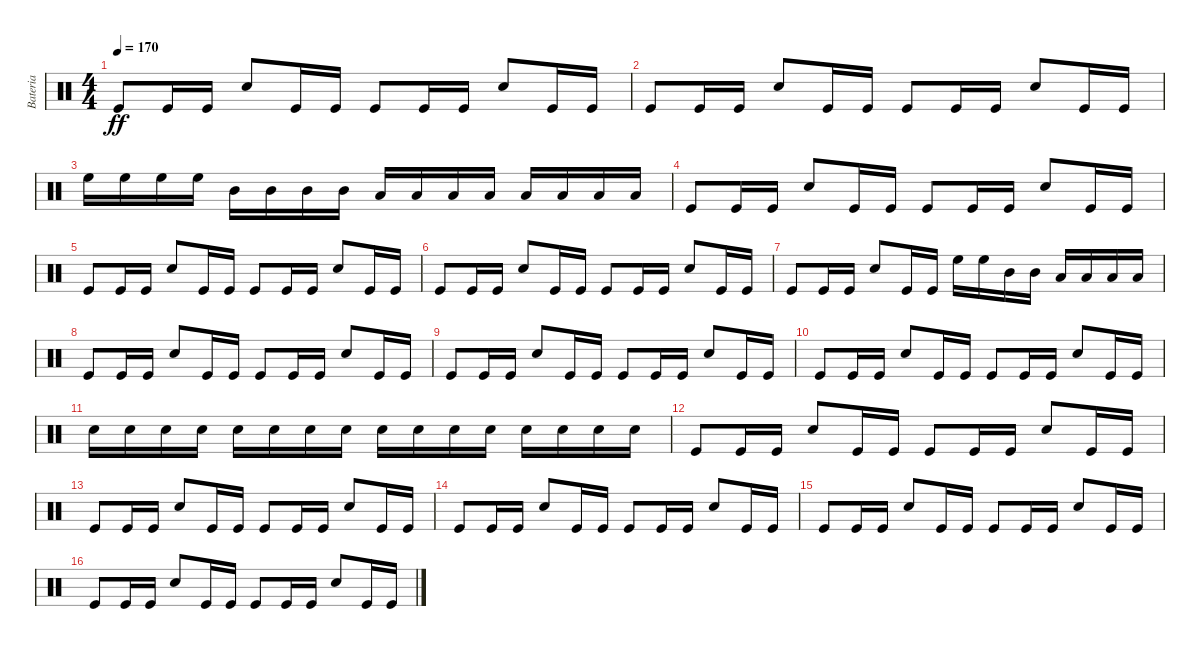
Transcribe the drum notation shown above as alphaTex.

\track ("Bateria" "Bateria") {instrument percussion}
\staff {score}
\articulation defaults
\ts (4 4)
\tempo 170
\clef neutral
\ks c "Kick (hit)".8{dy ff} "Kick (hit)".16 "Kick (hit)".16 "Electric Snare (hit)".8 "Kick (hit)".16 "Kick (hit)".16 "Kick (hit)".8 "Kick (hit)".16 "Kick (hit)".16 "Electric Snare (hit)".8 "Kick (hit)".16 "Kick (hit)".16
|
"Kick (hit)".8 "Kick (hit)".16 "Kick (hit)".16 "Electric Snare (hit)".8 "Kick (hit)".16 "Kick (hit)".16 "Kick (hit)".8 "Kick (hit)".16 "Kick (hit)".16 "Electric Snare (hit)".8 "Kick (hit)".16 "Kick (hit)".16 |
"High Floor Tom (hit)".16 "High Floor Tom (hit)".16 "High Floor Tom (hit)".16 "High Floor Tom (hit)".16 "Mid Tom (hit)".16 "Mid Tom (hit)".16 "Mid Tom (hit)".16 "Mid Tom (hit)".16 "Low Tom (hit)".16 "Low Tom (hit)".16 "Low Tom (hit)".16 "Low Tom (hit)".16 "Low Floor Tom (hit)".16 "Low Floor Tom (hit)".16 "Low Floor Tom (hit)".16 "Low Floor Tom (hit)".16 |
"Kick (hit)".8 "Kick (hit)".16 "Kick (hit)".16 "Electric Snare (hit)".8 "Kick (hit)".16 "Kick (hit)".16 "Kick (hit)".8 "Kick (hit)".16 "Kick (hit)".16 "Electric Snare (hit)".8 "Kick (hit)".16 "Kick (hit)".16 |
"Kick (hit)".8 "Kick (hit)".16 "Kick (hit)".16 "Electric Snare (hit)".8 "Kick (hit)".16 "Kick (hit)".16 "Kick (hit)".8 "Kick (hit)".16 "Kick (hit)".16 "Electric Snare (hit)".8 "Kick (hit)".16 "Kick (hit)".16 |
"Kick (hit)".8 "Kick (hit)".16 "Kick (hit)".16 "Electric Snare (hit)".8 "Kick (hit)".16 "Kick (hit)".16 "Kick (hit)".8 "Kick (hit)".16 "Kick (hit)".16 "Electric Snare (hit)".8 "Kick (hit)".16 "Kick (hit)".16 |
"Kick (hit)".8 "Kick (hit)".16 "Kick (hit)".16 "Electric Snare (hit)".8 "Kick (hit)".16 "Kick (hit)".16 "High Floor Tom (hit)".16 "High Floor Tom (hit)".16 "Mid Tom (hit)".16 "Mid Tom (hit)".16 "Low Tom (hit)".16 "Low Tom (hit)".16 "Low Floor Tom (hit)".16 "Low Floor Tom (hit)".16 |
"Kick (hit)".8 "Kick (hit)".16 "Kick (hit)".16 "Electric Snare (hit)".8 "Kick (hit)".16 "Kick (hit)".16 "Kick (hit)".8 "Kick (hit)".16 "Kick (hit)".16 "Electric Snare (hit)".8 "Kick (hit)".16 "Kick (hit)".16 |
"Kick (hit)".8 "Kick (hit)".16 "Kick (hit)".16 "Electric Snare (hit)".8 "Kick (hit)".16 "Kick (hit)".16 "Kick (hit)".8 "Kick (hit)".16 "Kick (hit)".16 "Electric Snare (hit)".8 "Kick (hit)".16 "Kick (hit)".16 |
"Kick (hit)".8 "Kick (hit)".16 "Kick (hit)".16 "Electric Snare (hit)".8 "Kick (hit)".16 "Kick (hit)".16 "Kick (hit)".8 "Kick (hit)".16 "Kick (hit)".16 "Electric Snare (hit)".8 "Kick (hit)".16 "Kick (hit)".16 |
"Electric Snare (hit)".16 "Electric Snare (hit)".16 "Electric Snare (hit)".16 "Electric Snare (hit)".16 "Electric Snare (hit)".16 "Electric Snare (hit)".16 "Electric Snare (hit)".16 "Electric Snare (hit)".16 "Electric Snare (hit)".16 "Electric Snare (hit)".16 "Electric Snare (hit)".16 "Electric Snare (hit)".16 "Electric Snare (hit)".16 "Electric Snare (hit)".16 "Electric Snare (hit)".16 "Electric Snare (hit)".16 |
"Kick (hit)".8 "Kick (hit)".16 "Kick (hit)".16 "Electric Snare (hit)".8 "Kick (hit)".16 "Kick (hit)".16 "Kick (hit)".8 "Kick (hit)".16 "Kick (hit)".16 "Electric Snare (hit)".8 "Kick (hit)".16 "Kick (hit)".16 |
"Kick (hit)".8 "Kick (hit)".16 "Kick (hit)".16 "Electric Snare (hit)".8 "Kick (hit)".16 "Kick (hit)".16 "Kick (hit)".8 "Kick (hit)".16 "Kick (hit)".16 "Electric Snare (hit)".8 "Kick (hit)".16 "Kick (hit)".16 |
"Kick (hit)".8 "Kick (hit)".16 "Kick (hit)".16 "Electric Snare (hit)".8 "Kick (hit)".16 "Kick (hit)".16 "Kick (hit)".8 "Kick (hit)".16 "Kick (hit)".16 "Electric Snare (hit)".8 "Kick (hit)".16 "Kick (hit)".16 |
"Kick (hit)".8 "Kick (hit)".16 "Kick (hit)".16 "Electric Snare (hit)".8 "Kick (hit)".16 "Kick (hit)".16 "Kick (hit)".8 "Kick (hit)".16 "Kick (hit)".16 "Electric Snare (hit)".8 "Kick (hit)".16 "Kick (hit)".16 |
"Kick (hit)".8 "Kick (hit)".16 "Kick (hit)".16 "Electric Snare (hit)".8 "Kick (hit)".16 "Kick (hit)".16 "Kick (hit)".8 "Kick (hit)".16 "Kick (hit)".16 "Electric Snare (hit)".8 "Kick (hit)".16 "Kick (hit)".16
